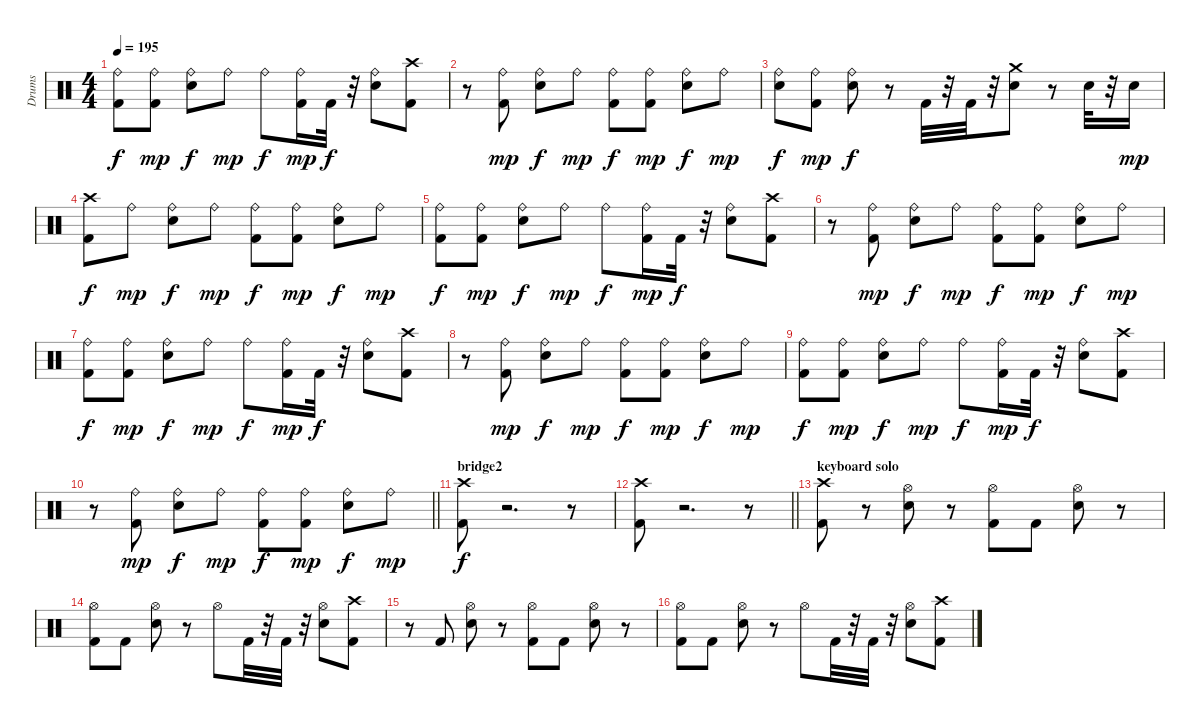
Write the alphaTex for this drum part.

\track ("Drums" "Drums") {instrument percussion}
\staff {score}
\articulation defaults
\ts (4 4)
\tempo 195
\clef neutral
\ks c
("Kick (hit) 2" "Ride (bell)").8{dy f} ("Kick (hit) 2" "Ride (bell)").8{dy mp} ("Electric Snare (hit)" "Ride (bell)").8{dy f} "Ride (bell)".8{dy mp} "Ride (bell)".8{dy f} ("Kick (hit) 2" "Ride (bell)").16{dy mp} "Kick (hit) 2".32{dy f} r.32 ("Electric Snare (hit)" "Ride (bell)").8 ("Kick (hit) 2" "Crash high (hit)").8 |
r.8 ("Kick (hit) 2" "Ride (bell)").8{dy mp} ("Electric Snare (hit)" "Ride (bell)").8{dy f} "Ride (bell)".8{dy mp} ("Kick (hit) 2" "Ride (bell)").8{dy f} ("Kick (hit) 2" "Ride (bell)").8{dy mp} ("Electric Snare (hit)" "Ride (bell)").8{dy f} "Ride (bell)".8{dy mp} |
("Electric Snare (hit)" "Ride (bell)").8{dy f} ("Kick (hit) 2" "Ride (bell)").8{dy mp} ("Electric Snare (hit)" "Ride (bell)").8{dy f} r.8 "Kick (hit) 2".32 r.32 "Kick (hit) 2".32 r.32 ("Electric Snare (hit)" "Crash medium (hit)").8 r.8 "Electric Snare (hit)".32 r.32 "Electric Snare (hit)".16{dy mp} |
("Kick (hit) 2" "Crash high (hit)").8{dy f} "Ride (bell)".8{dy mp} ("Electric Snare (hit)" "Ride (bell)").8{dy f} "Ride (bell)".8{dy mp} ("Kick (hit) 2" "Ride (bell)").8{dy f} ("Kick (hit) 2" "Ride (bell)").8{dy mp} ("Electric Snare (hit)" "Ride (bell)").8{dy f} "Ride (bell)".8{dy mp} |
("Kick (hit) 2" "Ride (bell)").8{dy f} ("Kick (hit) 2" "Ride (bell)").8{dy mp} ("Electric Snare (hit)" "Ride (bell)").8{dy f} "Ride (bell)".8{dy mp} "Ride (bell)".8{dy f} ("Kick (hit) 2" "Ride (bell)").16{dy mp} "Kick (hit) 2".32{dy f} r.32 ("Electric Snare (hit)" "Ride (bell)").8 ("Kick (hit) 2" "Crash high (hit)").8 |
r.8 ("Kick (hit) 2" "Ride (bell)").8{dy mp} ("Electric Snare (hit)" "Ride (bell)").8{dy f} "Ride (bell)".8{dy mp} ("Kick (hit) 2" "Ride (bell)").8{dy f} ("Kick (hit) 2" "Ride (bell)").8{dy mp} ("Electric Snare (hit)" "Ride (bell)").8{dy f} "Ride (bell)".8{dy mp} |
("Kick (hit) 2" "Ride (bell)").8{dy f} ("Kick (hit) 2" "Ride (bell)").8{dy mp} ("Electric Snare (hit)" "Ride (bell)").8{dy f} "Ride (bell)".8{dy mp} "Ride (bell)".8{dy f} ("Kick (hit) 2" "Ride (bell)").16{dy mp} "Kick (hit) 2".32{dy f} r.32 ("Electric Snare (hit)" "Ride (bell)").8 ("Kick (hit) 2" "Crash high (hit)").8 |
r.8 ("Kick (hit) 2" "Ride (bell)").8{dy mp} ("Electric Snare (hit)" "Ride (bell)").8{dy f} "Ride (bell)".8{dy mp} ("Kick (hit) 2" "Ride (bell)").8{dy f} ("Kick (hit) 2" "Ride (bell)").8{dy mp} ("Electric Snare (hit)" "Ride (bell)").8{dy f} "Ride (bell)".8{dy mp} |
("Kick (hit) 2" "Ride (bell)").8{dy f} ("Kick (hit) 2" "Ride (bell)").8{dy mp} ("Electric Snare (hit)" "Ride (bell)").8{dy f} "Ride (bell)".8{dy mp} "Ride (bell)".8{dy f} ("Kick (hit) 2" "Ride (bell)").16{dy mp} "Kick (hit) 2".32{dy f} r.32 ("Electric Snare (hit)" "Ride (bell)").8 ("Kick (hit) 2" "Crash high (hit)").8 |
\barLineRight lightlight
r.8 ("Kick (hit) 2" "Ride (bell)").8{dy mp} ("Electric Snare (hit)" "Ride (bell)").8{dy f} "Ride (bell)".8{dy mp} ("Kick (hit) 2" "Ride (bell)").8{dy f} ("Kick (hit) 2" "Ride (bell)").8{dy mp} ("Electric Snare (hit)" "Ride (bell)").8{dy f} "Ride (bell)".8{dy mp} |
\section ("" "bridge2")
("Kick (hit) 2" "Crash high (hit)").8{dy f} r.2{d} r.8 |
\barLineRight lightlight
("Kick (hit) 2" "Crash high (hit)").8 r.2{d} r.8 |
\section ("" "keyboard solo")
("Kick (hit) 2" "Crash high (hit)").8 r.8 ("Electric Snare (hit)" "Hi-Hat (open)").8 r.8 ("Kick (hit) 2" "Hi-Hat (open)").8 "Kick (hit) 2".8 ("Electric Snare (hit)" "Hi-Hat (open)").8 r.8 |
("Kick (hit) 2" "Hi-Hat (open)").8 "Kick (hit) 2".8 ("Electric Snare (hit)" "Hi-Hat (open)").8 r.8 "Hi-Hat (open)".8 "Kick (hit) 2".32 r.32 "Kick (hit) 2".32 r.32 ("Electric Snare (hit)" "Hi-Hat (open)").8 ("Kick (hit) 2" "Crash high (hit)").8 |
r.8 "Kick (hit) 2".8 ("Electric Snare (hit)" "Hi-Hat (open)").8 r.8 ("Kick (hit) 2" "Hi-Hat (open)").8 "Kick (hit) 2".8 ("Electric Snare (hit)" "Hi-Hat (open)").8 r.8 |
("Kick (hit) 2" "Hi-Hat (open)").8 "Kick (hit) 2".8 ("Electric Snare (hit)" "Hi-Hat (open)").8 r.8 "Hi-Hat (open)".8 "Kick (hit) 2".32 r.32 "Kick (hit) 2".32 r.32 ("Electric Snare (hit)" "Hi-Hat (open)").8 ("Kick (hit) 2" "Crash high (hit)").8
